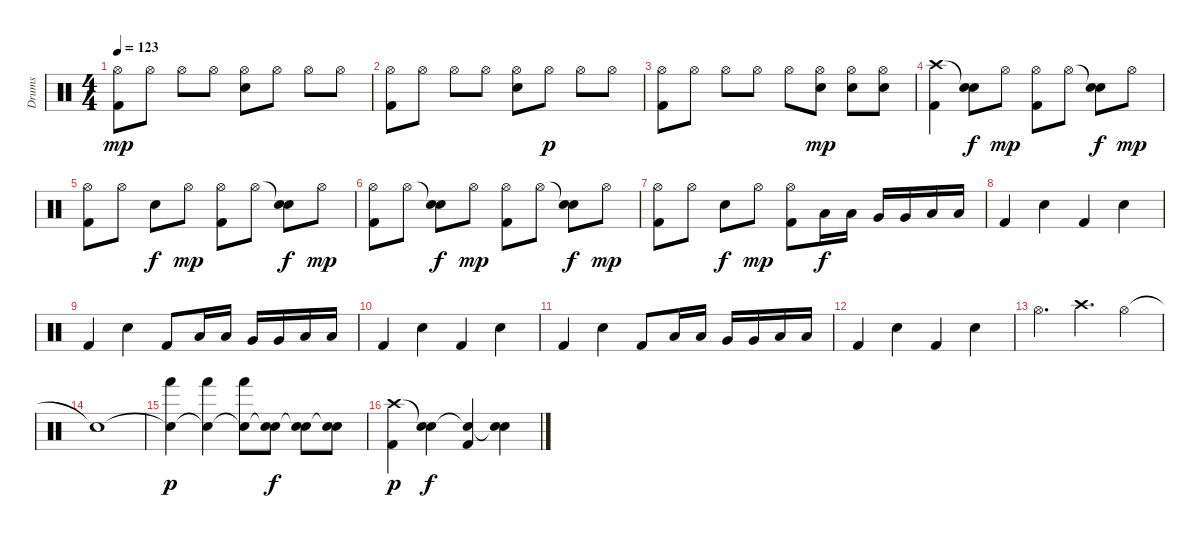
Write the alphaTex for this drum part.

\track ("Drums" "Drums") {instrument percussion}
\staff {score}
\articulation defaults
\ts (4 4)
\tempo 123
\clef neutral
\ks c
("Hi-Hat (open)" "Kick (hit) 2").8{dy mp} "Hi-Hat (open)".8 "Hi-Hat (open)".8 "Hi-Hat (open)".8 ("Hi-Hat (open)" "Electric Snare (hit)").8 "Hi-Hat (open)".8 "Hi-Hat (open)".8 "Hi-Hat (open)".8 |
("Hi-Hat (open)" "Kick (hit) 2").8 "Hi-Hat (open)".8 "Hi-Hat (open)".8 "Hi-Hat (open)".8 ("Hi-Hat (open)" "Electric Snare (hit)").8 "Hi-Hat (open)".8{dy p} "Hi-Hat (open)".8 "Hi-Hat (open)".8 |
("Hi-Hat (open)" "Kick (hit) 2").8 "Hi-Hat (open)".8 "Hi-Hat (open)".8 "Hi-Hat (open)".8 "Hi-Hat (open)".8 ("Hi-Hat (open)" "Electric Snare (hit)").8{dy mp} ("Hi-Hat (open)" "Electric Snare (hit)").8 ("Hi-Hat (open)" "Electric Snare (hit)").8 |
("Crash high (hit)" "Kick (hit) 2").4 ("Snare (hit)"{t} "Electric Snare (hit)").8{dy f} "Hi-Hat (open)".8{dy mp} ("Hi-Hat (open)" "Kick (hit) 2").8 "Hi-Hat (open)".8 ("Snare (hit)"{t} "Electric Snare (hit)").8{dy f} "Hi-Hat (open)".8{dy mp} |
("Hi-Hat (open)" "Kick (hit) 2").8 "Hi-Hat (open)".8 "Electric Snare (hit)".8{dy f} "Hi-Hat (open)".8{dy mp} ("Hi-Hat (open)" "Kick (hit) 2").8 "Hi-Hat (open)".8 ("Snare (hit)"{t} "Electric Snare (hit)").8{dy f} "Hi-Hat (open)".8{dy mp} |
("Hi-Hat (open)" "Kick (hit) 2").8 "Hi-Hat (open)".8 ("Snare (hit)"{t} "Electric Snare (hit)").8{dy f} "Hi-Hat (open)".8{dy mp} ("Hi-Hat (open)" "Kick (hit) 2").8 "Hi-Hat (open)".8 ("Snare (hit)"{t} "Electric Snare (hit)").8{dy f} "Hi-Hat (open)".8{dy mp} |
("Hi-Hat (open)" "Kick (hit) 2").8 "Hi-Hat (open)".8 "Electric Snare (hit)".8{dy f} "Hi-Hat (open)".8{dy mp} ("Hi-Hat (open)" "Kick (hit) 2").8 "Low Tom (hit)".16{dy f} "Low Tom (hit)".16 "Very Low Tom (hit)".16 "Very Low Tom (hit)".16 "Low Floor Tom (hit)".16 "Low Floor Tom (hit)".16 |
"Kick (hit) 2".4 "Electric Snare (hit)".4 "Kick (hit) 2".4 "Electric Snare (hit)".4 |
"Kick (hit) 2".4 "Electric Snare (hit)".4 "Kick (hit) 2".8 "Low Tom (hit)".16 "Low Tom (hit)".16 "Very Low Tom (hit)".16 "Very Low Tom (hit)".16 "Low Floor Tom (hit)".16 "Low Floor Tom (hit)".16 |
"Kick (hit) 2".4 "Electric Snare (hit)".4 "Kick (hit) 2".4 "Electric Snare (hit)".4 |
"Kick (hit) 2".4 "Electric Snare (hit)".4 "Kick (hit) 2".8 "Low Tom (hit)".16 "Low Tom (hit)".16 "Very Low Tom (hit)".16 "Very Low Tom (hit)".16 "Low Floor Tom (hit)".16 "Low Floor Tom (hit)".16 |
"Kick (hit) 2".4 "Electric Snare (hit)".4 "Kick (hit) 2".4 "Electric Snare (hit)".4 |
"Hi-Hat (open)".4{d} "Crash high (hit)".4{d} "Hi-Hat (open)".4 |
"Snare (hit)"{t}.1 |
("Snare (hit)"{t} "Hand (hit)").4{dy p} ("Snare (hit)"{t} "Hand (hit)").4 ("Snare (hit)"{t} "Hand (hit)").8 ("Snare (hit)"{t} "Electric Snare (hit)").8{dy f} ("Snare (hit)"{t} "Electric Snare (hit)").8 ("Snare (hit)"{t} "Electric Snare (hit)").8 |
("Crash high (hit)" "Kick (hit) 2").4{dy p} ("Snare (hit)"{t} "Electric Snare (hit)").4{dy f} ("Snare (hit)"{t} "Kick (hit) 2").4 ("Snare (hit)"{t} "Electric Snare (hit)").4
